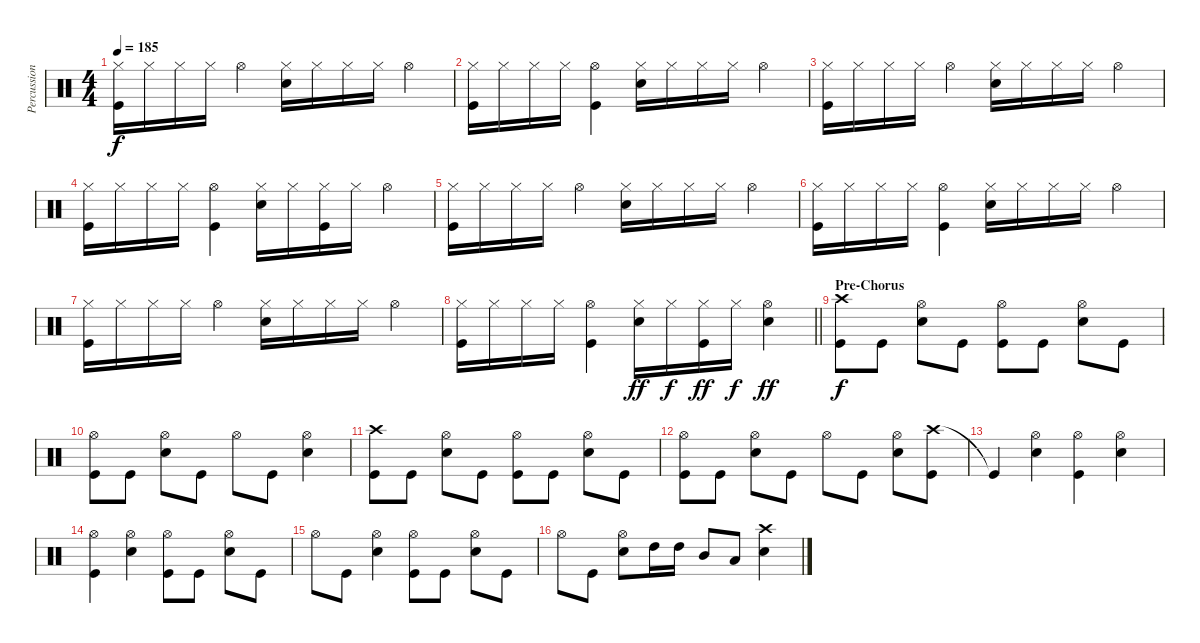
\track ("Percussion" "Percussion") {instrument percussion}
\staff {score}
\articulation defaults
\ts (4 4)
\tempo 185
\clef neutral
\ks c
("Hi-Hat (closed)" "Kick (hit)").16{dy f} "Hi-Hat (closed)".16 "Hi-Hat (closed)".16 "Hi-Hat (closed)".16 "Hi-Hat (open)".4 ("Hi-Hat (closed)" "Snare (hit) 2").16 "Hi-Hat (closed)".16 "Hi-Hat (closed)".16 "Hi-Hat (closed)".16 "Hi-Hat (open)".4 |
("Hi-Hat (closed)" "Kick (hit)").16 "Hi-Hat (closed)".16 "Hi-Hat (closed)".16 "Hi-Hat (closed)".16 ("Hi-Hat (open)" "Kick (hit)").4 ("Hi-Hat (closed)" "Snare (hit) 2").16 "Hi-Hat (closed)".16 "Hi-Hat (closed)".16 "Hi-Hat (closed)".16 "Hi-Hat (open)".4 |
("Hi-Hat (closed)" "Kick (hit)").16 "Hi-Hat (closed)".16 "Hi-Hat (closed)".16 "Hi-Hat (closed)".16 "Hi-Hat (open)".4 ("Hi-Hat (closed)" "Snare (hit) 2").16 "Hi-Hat (closed)".16 "Hi-Hat (closed)".16 "Hi-Hat (closed)".16 "Hi-Hat (open)".4 |
("Hi-Hat (closed)" "Kick (hit)").16 "Hi-Hat (closed)".16 "Hi-Hat (closed)".16 "Hi-Hat (closed)".16 ("Hi-Hat (open)" "Kick (hit)").4 ("Hi-Hat (closed)" "Snare (hit) 2").16 "Hi-Hat (closed)".16 ("Hi-Hat (closed)" "Kick (hit)").16 "Hi-Hat (closed)".16 "Hi-Hat (open)".4 |
("Hi-Hat (closed)" "Kick (hit)").16 "Hi-Hat (closed)".16 "Hi-Hat (closed)".16 "Hi-Hat (closed)".16 "Hi-Hat (open)".4 ("Hi-Hat (closed)" "Snare (hit) 2").16 "Hi-Hat (closed)".16 "Hi-Hat (closed)".16 "Hi-Hat (closed)".16 "Hi-Hat (open)".4 |
("Hi-Hat (closed)" "Kick (hit)").16 "Hi-Hat (closed)".16 "Hi-Hat (closed)".16 "Hi-Hat (closed)".16 ("Hi-Hat (open)" "Kick (hit)").4 ("Hi-Hat (closed)" "Snare (hit) 2").16 "Hi-Hat (closed)".16 "Hi-Hat (closed)".16 "Hi-Hat (closed)".16 "Hi-Hat (open)".4 |
("Hi-Hat (closed)" "Kick (hit)").16 "Hi-Hat (closed)".16 "Hi-Hat (closed)".16 "Hi-Hat (closed)".16 "Hi-Hat (open)".4 ("Hi-Hat (closed)" "Snare (hit) 2").16 "Hi-Hat (closed)".16 "Hi-Hat (closed)".16 "Hi-Hat (closed)".16 "Hi-Hat (open)".4 |
\barLineRight lightlight
("Hi-Hat (closed)" "Kick (hit)").16 "Hi-Hat (closed)".16 "Hi-Hat (closed)".16 "Hi-Hat (closed)".16 ("Hi-Hat (open)" "Kick (hit)").4 ("Hi-Hat (closed)" "Snare (hit) 2").16{dy ff} "Hi-Hat (closed)".16{dy f} ("Hi-Hat (closed)" "Kick (hit)").16{dy ff} "Hi-Hat (closed)".16{dy f} ("Snare (hit) 2" "Hi-Hat (open)").4{dy ff} |
\section ("" "Pre-Chorus")
("Crash high (hit)" "Kick (hit)").8{dy f} "Kick (hit)".8 ("Snare (hit) 2" "Hi-Hat (open)").8 "Kick (hit)".8 ("Kick (hit)" "Hi-Hat (open)").8 "Kick (hit)".8 ("Snare (hit) 2" "Hi-Hat (open)").8 "Kick (hit)".8 |
("Kick (hit)" "Hi-Hat (open)").8 "Kick (hit)".8 ("Snare (hit) 2" "Hi-Hat (open)").8 "Kick (hit)".8 "Hi-Hat (open)".8 "Kick (hit)".8 ("Snare (hit) 2" "Hi-Hat (open)").4 |
("Crash high (hit)" "Kick (hit)").8 "Kick (hit)".8 ("Snare (hit) 2" "Hi-Hat (open)").8 "Kick (hit)".8 ("Kick (hit)" "Hi-Hat (open)").8 "Kick (hit)".8 ("Snare (hit) 2" "Hi-Hat (open)").8 "Kick (hit)".8 |
("Kick (hit)" "Hi-Hat (open)").8 "Kick (hit)".8 ("Snare (hit) 2" "Hi-Hat (open)").8 "Kick (hit)".8 "Hi-Hat (open)".8 "Kick (hit)".8 ("Snare (hit) 2" "Hi-Hat (open)").8 ("Crash high (hit)" "Kick (hit)").8 |
"Kick (hit)"{t}.4 ("Hi-Hat (open)" "Snare (hit) 2").4 ("Hi-Hat (open)" "Kick (hit)").4 ("Snare (hit) 2" "Hi-Hat (open)").4 |
("Kick (hit)" "Hi-Hat (open)").4 ("Hi-Hat (open)" "Snare (hit) 2").4 ("Kick (hit)" "Hi-Hat (open)").8 "Kick (hit)".8 ("Snare (hit) 2" "Hi-Hat (open)").8 "Kick (hit)".8 |
"Hi-Hat (open)".8 "Kick (hit)".8 ("Snare (hit) 2" "Hi-Hat (open)").4 ("Hi-Hat (open)" "Kick (hit)").8 "Kick (hit)".8 ("Snare (hit) 2" "Hi-Hat (open)").8 "Kick (hit)".8 |
"Hi-Hat (open)".8 "Kick (hit)".8 ("Snare (hit) 2" "Hi-Hat (open)").8 "High Tom (hit)".16 "High Tom (hit)".16 "Mid Tom (hit)".8 "Low Tom (hit)".8 ("Snare (hit) 2" "Crash high (hit)").4
